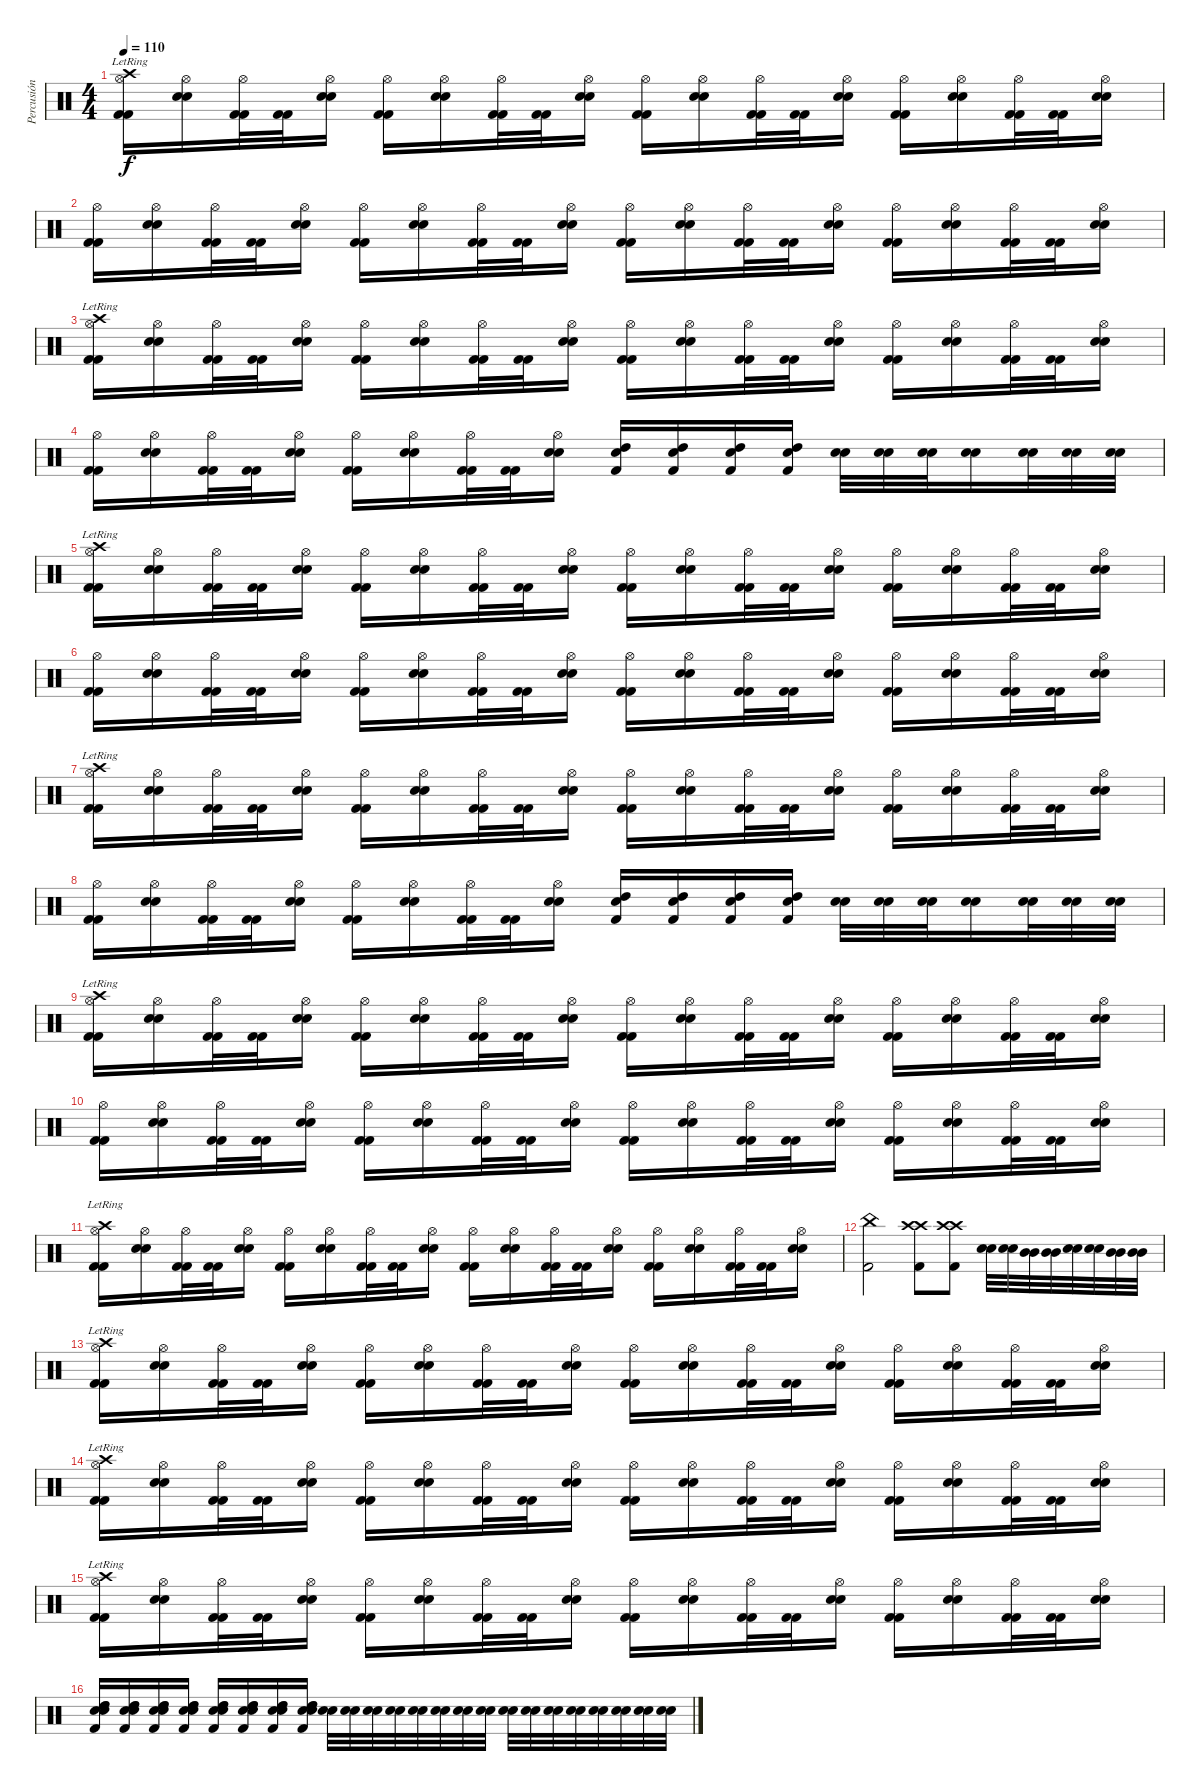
\track ("Percusión" "Percusión") {instrument percussion}
\staff {score}
\articulation defaults
\ts (4 4)
\tempo 110
\clef neutral
\ks c
("Kick (hit) 2" "Kick (hit) 2" "Hi-Hat (open)" "Crash high (hit)"{lr}).16{dy f} ("Snare (hit) 2" "Snare (hit) 2" "Hi-Hat (open)").16 ("Kick (hit) 2" "Kick (hit) 2" "Hi-Hat (open)").32 ("Kick (hit) 2" "Kick (hit) 2").32 ("Snare (hit) 2" "Snare (hit) 2" "Hi-Hat (open)").16 ("Kick (hit) 2" "Kick (hit) 2" "Hi-Hat (open)").16 ("Snare (hit) 2" "Snare (hit) 2" "Hi-Hat (open)").16 ("Kick (hit) 2" "Kick (hit) 2" "Hi-Hat (open)").32 ("Kick (hit) 2" "Kick (hit) 2").32 ("Snare (hit) 2" "Snare (hit) 2" "Hi-Hat (open)").16 ("Kick (hit) 2" "Kick (hit) 2" "Hi-Hat (open)").16 ("Snare (hit) 2" "Snare (hit) 2" "Hi-Hat (open)").16 ("Kick (hit) 2" "Kick (hit) 2" "Hi-Hat (open)").32 ("Kick (hit) 2" "Kick (hit) 2").32 ("Snare (hit) 2" "Snare (hit) 2" "Hi-Hat (open)").16 ("Kick (hit) 2" "Kick (hit) 2" "Hi-Hat (open)").16 ("Snare (hit) 2" "Snare (hit) 2" "Hi-Hat (open)").16 ("Kick (hit) 2" "Kick (hit) 2" "Hi-Hat (open)").32 ("Kick (hit) 2" "Kick (hit) 2").32 ("Snare (hit) 2" "Snare (hit) 2" "Hi-Hat (open)").16 |
("Kick (hit) 2" "Kick (hit) 2" "Hi-Hat (open)").16 ("Snare (hit) 2" "Snare (hit) 2" "Hi-Hat (open)").16 ("Kick (hit) 2" "Kick (hit) 2" "Hi-Hat (open)").32 ("Kick (hit) 2" "Kick (hit) 2").32 ("Snare (hit) 2" "Snare (hit) 2" "Hi-Hat (open)").16 ("Kick (hit) 2" "Kick (hit) 2" "Hi-Hat (open)").16 ("Snare (hit) 2" "Snare (hit) 2" "Hi-Hat (open)").16 ("Kick (hit) 2" "Kick (hit) 2" "Hi-Hat (open)").32 ("Kick (hit) 2" "Kick (hit) 2").32 ("Snare (hit) 2" "Snare (hit) 2" "Hi-Hat (open)").16 ("Kick (hit) 2" "Kick (hit) 2" "Hi-Hat (open)").16 ("Snare (hit) 2" "Snare (hit) 2" "Hi-Hat (open)").16 ("Kick (hit) 2" "Kick (hit) 2" "Hi-Hat (open)").32 ("Kick (hit) 2" "Kick (hit) 2").32 ("Snare (hit) 2" "Snare (hit) 2" "Hi-Hat (open)").16 ("Kick (hit) 2" "Kick (hit) 2" "Hi-Hat (open)").16 ("Snare (hit) 2" "Snare (hit) 2" "Hi-Hat (open)").16 ("Kick (hit) 2" "Kick (hit) 2" "Hi-Hat (open)").32 ("Kick (hit) 2" "Kick (hit) 2").32 ("Snare (hit) 2" "Snare (hit) 2" "Hi-Hat (open)").16 |
("Kick (hit) 2" "Kick (hit) 2" "Hi-Hat (open)" "Crash high (hit)"{lr}).16 ("Snare (hit) 2" "Snare (hit) 2" "Hi-Hat (open)").16 ("Kick (hit) 2" "Kick (hit) 2" "Hi-Hat (open)").32 ("Kick (hit) 2" "Kick (hit) 2").32 ("Snare (hit) 2" "Snare (hit) 2" "Hi-Hat (open)").16 ("Kick (hit) 2" "Kick (hit) 2" "Hi-Hat (open)").16 ("Snare (hit) 2" "Snare (hit) 2" "Hi-Hat (open)").16 ("Kick (hit) 2" "Kick (hit) 2" "Hi-Hat (open)").32 ("Kick (hit) 2" "Kick (hit) 2").32 ("Snare (hit) 2" "Snare (hit) 2" "Hi-Hat (open)").16 ("Kick (hit) 2" "Kick (hit) 2" "Hi-Hat (open)").16 ("Snare (hit) 2" "Snare (hit) 2" "Hi-Hat (open)").16 ("Kick (hit) 2" "Kick (hit) 2" "Hi-Hat (open)").32 ("Kick (hit) 2" "Kick (hit) 2").32 ("Snare (hit) 2" "Snare (hit) 2" "Hi-Hat (open)").16 ("Kick (hit) 2" "Kick (hit) 2" "Hi-Hat (open)").16 ("Snare (hit) 2" "Snare (hit) 2" "Hi-Hat (open)").16 ("Kick (hit) 2" "Kick (hit) 2" "Hi-Hat (open)").32 ("Kick (hit) 2" "Kick (hit) 2").32 ("Snare (hit) 2" "Snare (hit) 2" "Hi-Hat (open)").16 |
("Kick (hit) 2" "Kick (hit) 2" "Hi-Hat (open)").16 ("Snare (hit) 2" "Snare (hit) 2" "Hi-Hat (open)").16 ("Kick (hit) 2" "Kick (hit) 2" "Hi-Hat (open)").32 ("Kick (hit) 2" "Kick (hit) 2").32 ("Snare (hit) 2" "Snare (hit) 2" "Hi-Hat (open)").16 ("Kick (hit) 2" "Kick (hit) 2" "Hi-Hat (open)").16 ("Snare (hit) 2" "Snare (hit) 2" "Hi-Hat (open)").16 ("Kick (hit) 2" "Kick (hit) 2" "Hi-Hat (open)").32 ("Kick (hit) 2" "Kick (hit) 2").32 ("Snare (hit) 2" "Snare (hit) 2" "Hi-Hat (open)").16 ("Snare (hit) 2" "High Tom (hit)" "Kick (hit) 2").16 ("Snare (hit) 2" "High Tom (hit)" "Kick (hit) 2").16 ("Snare (hit) 2" "High Tom (hit)" "Kick (hit) 2").16 ("Snare (hit) 2" "High Tom (hit)" "Kick (hit) 2").16 ("Snare (hit) 2" "Snare (hit) 2").32 ("Snare (hit) 2" "Snare (hit) 2").32 ("Snare (hit) 2" "Snare (hit) 2").32 ("Snare (hit) 2" "Snare (hit) 2").16 ("Snare (hit) 2" "Snare (hit) 2").32 ("Snare (hit) 2" "Snare (hit) 2").32 ("Snare (hit) 2" "Snare (hit) 2").32 |
("Kick (hit) 2" "Kick (hit) 2" "Hi-Hat (open)" "Crash high (hit)"{lr}).16 ("Snare (hit) 2" "Snare (hit) 2" "Hi-Hat (open)").16 ("Kick (hit) 2" "Kick (hit) 2" "Hi-Hat (open)").32 ("Kick (hit) 2" "Kick (hit) 2").32 ("Snare (hit) 2" "Snare (hit) 2" "Hi-Hat (open)").16 ("Kick (hit) 2" "Kick (hit) 2" "Hi-Hat (open)").16 ("Snare (hit) 2" "Snare (hit) 2" "Hi-Hat (open)").16 ("Kick (hit) 2" "Kick (hit) 2" "Hi-Hat (open)").32 ("Kick (hit) 2" "Kick (hit) 2").32 ("Snare (hit) 2" "Snare (hit) 2" "Hi-Hat (open)").16 ("Kick (hit) 2" "Kick (hit) 2" "Hi-Hat (open)").16 ("Snare (hit) 2" "Snare (hit) 2" "Hi-Hat (open)").16 ("Kick (hit) 2" "Kick (hit) 2" "Hi-Hat (open)").32 ("Kick (hit) 2" "Kick (hit) 2").32 ("Snare (hit) 2" "Snare (hit) 2" "Hi-Hat (open)").16 ("Kick (hit) 2" "Kick (hit) 2" "Hi-Hat (open)").16 ("Snare (hit) 2" "Snare (hit) 2" "Hi-Hat (open)").16 ("Kick (hit) 2" "Kick (hit) 2" "Hi-Hat (open)").32 ("Kick (hit) 2" "Kick (hit) 2").32 ("Snare (hit) 2" "Snare (hit) 2" "Hi-Hat (open)").16 |
("Kick (hit) 2" "Kick (hit) 2" "Hi-Hat (open)").16 ("Snare (hit) 2" "Snare (hit) 2" "Hi-Hat (open)").16 ("Kick (hit) 2" "Kick (hit) 2" "Hi-Hat (open)").32 ("Kick (hit) 2" "Kick (hit) 2").32 ("Snare (hit) 2" "Snare (hit) 2" "Hi-Hat (open)").16 ("Kick (hit) 2" "Kick (hit) 2" "Hi-Hat (open)").16 ("Snare (hit) 2" "Snare (hit) 2" "Hi-Hat (open)").16 ("Kick (hit) 2" "Kick (hit) 2" "Hi-Hat (open)").32 ("Kick (hit) 2" "Kick (hit) 2").32 ("Snare (hit) 2" "Snare (hit) 2" "Hi-Hat (open)").16 ("Kick (hit) 2" "Kick (hit) 2" "Hi-Hat (open)").16 ("Snare (hit) 2" "Snare (hit) 2" "Hi-Hat (open)").16 ("Kick (hit) 2" "Kick (hit) 2" "Hi-Hat (open)").32 ("Kick (hit) 2" "Kick (hit) 2").32 ("Snare (hit) 2" "Snare (hit) 2" "Hi-Hat (open)").16 ("Kick (hit) 2" "Kick (hit) 2" "Hi-Hat (open)").16 ("Snare (hit) 2" "Snare (hit) 2" "Hi-Hat (open)").16 ("Kick (hit) 2" "Kick (hit) 2" "Hi-Hat (open)").32 ("Kick (hit) 2" "Kick (hit) 2").32 ("Snare (hit) 2" "Snare (hit) 2" "Hi-Hat (open)").16 |
("Kick (hit) 2" "Kick (hit) 2" "Hi-Hat (open)" "Crash high (hit)"{lr}).16 ("Snare (hit) 2" "Snare (hit) 2" "Hi-Hat (open)").16 ("Kick (hit) 2" "Kick (hit) 2" "Hi-Hat (open)").32 ("Kick (hit) 2" "Kick (hit) 2").32 ("Snare (hit) 2" "Snare (hit) 2" "Hi-Hat (open)").16 ("Kick (hit) 2" "Kick (hit) 2" "Hi-Hat (open)").16 ("Snare (hit) 2" "Snare (hit) 2" "Hi-Hat (open)").16 ("Kick (hit) 2" "Kick (hit) 2" "Hi-Hat (open)").32 ("Kick (hit) 2" "Kick (hit) 2").32 ("Snare (hit) 2" "Snare (hit) 2" "Hi-Hat (open)").16 ("Kick (hit) 2" "Kick (hit) 2" "Hi-Hat (open)").16 ("Snare (hit) 2" "Snare (hit) 2" "Hi-Hat (open)").16 ("Kick (hit) 2" "Kick (hit) 2" "Hi-Hat (open)").32 ("Kick (hit) 2" "Kick (hit) 2").32 ("Snare (hit) 2" "Snare (hit) 2" "Hi-Hat (open)").16 ("Kick (hit) 2" "Kick (hit) 2" "Hi-Hat (open)").16 ("Snare (hit) 2" "Snare (hit) 2" "Hi-Hat (open)").16 ("Kick (hit) 2" "Kick (hit) 2" "Hi-Hat (open)").32 ("Kick (hit) 2" "Kick (hit) 2").32 ("Snare (hit) 2" "Snare (hit) 2" "Hi-Hat (open)").16 |
("Kick (hit) 2" "Kick (hit) 2" "Hi-Hat (open)").16 ("Snare (hit) 2" "Snare (hit) 2" "Hi-Hat (open)").16 ("Kick (hit) 2" "Kick (hit) 2" "Hi-Hat (open)").32 ("Kick (hit) 2" "Kick (hit) 2").32 ("Snare (hit) 2" "Snare (hit) 2" "Hi-Hat (open)").16 ("Kick (hit) 2" "Kick (hit) 2" "Hi-Hat (open)").16 ("Snare (hit) 2" "Snare (hit) 2" "Hi-Hat (open)").16 ("Kick (hit) 2" "Kick (hit) 2" "Hi-Hat (open)").32 ("Kick (hit) 2" "Kick (hit) 2").32 ("Snare (hit) 2" "Snare (hit) 2" "Hi-Hat (open)").16 ("Snare (hit) 2" "High Tom (hit)" "Kick (hit) 2").16 ("Snare (hit) 2" "High Tom (hit)" "Kick (hit) 2").16 ("Snare (hit) 2" "High Tom (hit)" "Kick (hit) 2").16 ("Snare (hit) 2" "High Tom (hit)" "Kick (hit) 2").16 ("Snare (hit) 2" "Snare (hit) 2").32 ("Snare (hit) 2" "Snare (hit) 2").32 ("Snare (hit) 2" "Snare (hit) 2").32 ("Snare (hit) 2" "Snare (hit) 2").16 ("Snare (hit) 2" "Snare (hit) 2").32 ("Snare (hit) 2" "Snare (hit) 2").32 ("Snare (hit) 2" "Snare (hit) 2").32 |
("Kick (hit) 2" "Kick (hit) 2" "Hi-Hat (open)" "Crash high (hit)"{lr}).16 ("Snare (hit) 2" "Snare (hit) 2" "Hi-Hat (open)").16 ("Kick (hit) 2" "Kick (hit) 2" "Hi-Hat (open)").32 ("Kick (hit) 2" "Kick (hit) 2").32 ("Snare (hit) 2" "Snare (hit) 2" "Hi-Hat (open)").16 ("Kick (hit) 2" "Kick (hit) 2" "Hi-Hat (open)").16 ("Snare (hit) 2" "Snare (hit) 2" "Hi-Hat (open)").16 ("Kick (hit) 2" "Kick (hit) 2" "Hi-Hat (open)").32 ("Kick (hit) 2" "Kick (hit) 2").32 ("Snare (hit) 2" "Snare (hit) 2" "Hi-Hat (open)").16 ("Kick (hit) 2" "Kick (hit) 2" "Hi-Hat (open)").16 ("Snare (hit) 2" "Snare (hit) 2" "Hi-Hat (open)").16 ("Kick (hit) 2" "Kick (hit) 2" "Hi-Hat (open)").32 ("Kick (hit) 2" "Kick (hit) 2").32 ("Snare (hit) 2" "Snare (hit) 2" "Hi-Hat (open)").16 ("Kick (hit) 2" "Kick (hit) 2" "Hi-Hat (open)").16 ("Snare (hit) 2" "Snare (hit) 2" "Hi-Hat (open)").16 ("Kick (hit) 2" "Kick (hit) 2" "Hi-Hat (open)").32 ("Kick (hit) 2" "Kick (hit) 2").32 ("Snare (hit) 2" "Snare (hit) 2" "Hi-Hat (open)").16 |
("Kick (hit) 2" "Kick (hit) 2" "Hi-Hat (open)").16 ("Snare (hit) 2" "Snare (hit) 2" "Hi-Hat (open)").16 ("Kick (hit) 2" "Kick (hit) 2" "Hi-Hat (open)").32 ("Kick (hit) 2" "Kick (hit) 2").32 ("Snare (hit) 2" "Snare (hit) 2" "Hi-Hat (open)").16 ("Kick (hit) 2" "Kick (hit) 2" "Hi-Hat (open)").16 ("Snare (hit) 2" "Snare (hit) 2" "Hi-Hat (open)").16 ("Kick (hit) 2" "Kick (hit) 2" "Hi-Hat (open)").32 ("Kick (hit) 2" "Kick (hit) 2").32 ("Snare (hit) 2" "Snare (hit) 2" "Hi-Hat (open)").16 ("Kick (hit) 2" "Kick (hit) 2" "Hi-Hat (open)").16 ("Snare (hit) 2" "Snare (hit) 2" "Hi-Hat (open)").16 ("Kick (hit) 2" "Kick (hit) 2" "Hi-Hat (open)").32 ("Kick (hit) 2" "Kick (hit) 2").32 ("Snare (hit) 2" "Snare (hit) 2" "Hi-Hat (open)").16 ("Kick (hit) 2" "Kick (hit) 2" "Hi-Hat (open)").16 ("Snare (hit) 2" "Snare (hit) 2" "Hi-Hat (open)").16 ("Kick (hit) 2" "Kick (hit) 2" "Hi-Hat (open)").32 ("Kick (hit) 2" "Kick (hit) 2").32 ("Snare (hit) 2" "Snare (hit) 2" "Hi-Hat (open)").16 |
("Kick (hit) 2" "Kick (hit) 2" "Hi-Hat (open)" "Crash high (hit)"{lr}).16 ("Snare (hit) 2" "Snare (hit) 2" "Hi-Hat (open)").16 ("Kick (hit) 2" "Kick (hit) 2" "Hi-Hat (open)").32 ("Kick (hit) 2" "Kick (hit) 2").32 ("Snare (hit) 2" "Snare (hit) 2" "Hi-Hat (open)").16 ("Kick (hit) 2" "Kick (hit) 2" "Hi-Hat (open)").16 ("Snare (hit) 2" "Snare (hit) 2" "Hi-Hat (open)").16 ("Kick (hit) 2" "Kick (hit) 2" "Hi-Hat (open)").32 ("Kick (hit) 2" "Kick (hit) 2").32 ("Snare (hit) 2" "Snare (hit) 2" "Hi-Hat (open)").16 ("Kick (hit) 2" "Kick (hit) 2" "Hi-Hat (open)").16 ("Snare (hit) 2" "Snare (hit) 2" "Hi-Hat (open)").16 ("Kick (hit) 2" "Kick (hit) 2" "Hi-Hat (open)").32 ("Kick (hit) 2" "Kick (hit) 2").32 ("Snare (hit) 2" "Snare (hit) 2" "Hi-Hat (open)").16 ("Kick (hit) 2" "Kick (hit) 2" "Hi-Hat (open)").16 ("Snare (hit) 2" "Snare (hit) 2" "Hi-Hat (open)").16 ("Kick (hit) 2" "Kick (hit) 2" "Hi-Hat (open)").32 ("Kick (hit) 2" "Kick (hit) 2").32 ("Snare (hit) 2" "Snare (hit) 2" "Hi-Hat (open)").16 |
("China (hit)" "Kick (hit) 2").2 ("Crash high (hit)" "Crash high (hit)" "Kick (hit) 2").8 ("Crash high (hit)" "Crash high (hit)" "Kick (hit) 2").8 ("Snare (hit) 2" "Snare (hit) 2").32 ("Snare (hit) 2" "Snare (hit) 2").32 ("Mid Tom (hit)" "Mid Tom (hit)").32 ("Mid Tom (hit)" "Mid Tom (hit)").32 ("Snare (hit) 2" "Snare (hit) 2").32 ("Snare (hit) 2" "Snare (hit) 2").32 ("Mid Tom (hit)" "Mid Tom (hit)").32 ("Mid Tom (hit)" "Mid Tom (hit)").32 |
("Kick (hit) 2" "Kick (hit) 2" "Hi-Hat (open)" "Crash high (hit)"{lr}).16 ("Snare (hit) 2" "Snare (hit) 2" "Hi-Hat (open)").16 ("Kick (hit) 2" "Kick (hit) 2" "Hi-Hat (open)").32 ("Kick (hit) 2" "Kick (hit) 2").32 ("Snare (hit) 2" "Snare (hit) 2" "Hi-Hat (open)").16 ("Kick (hit) 2" "Kick (hit) 2" "Hi-Hat (open)").16 ("Snare (hit) 2" "Snare (hit) 2" "Hi-Hat (open)").16 ("Kick (hit) 2" "Kick (hit) 2" "Hi-Hat (open)").32 ("Kick (hit) 2" "Kick (hit) 2").32 ("Snare (hit) 2" "Snare (hit) 2" "Hi-Hat (open)").16 ("Kick (hit) 2" "Kick (hit) 2" "Hi-Hat (open)").16 ("Snare (hit) 2" "Snare (hit) 2" "Hi-Hat (open)").16 ("Kick (hit) 2" "Kick (hit) 2" "Hi-Hat (open)").32 ("Kick (hit) 2" "Kick (hit) 2").32 ("Snare (hit) 2" "Snare (hit) 2" "Hi-Hat (open)").16 ("Kick (hit) 2" "Kick (hit) 2" "Hi-Hat (open)").16 ("Snare (hit) 2" "Snare (hit) 2" "Hi-Hat (open)").16 ("Kick (hit) 2" "Kick (hit) 2" "Hi-Hat (open)").32 ("Kick (hit) 2" "Kick (hit) 2").32 ("Snare (hit) 2" "Snare (hit) 2" "Hi-Hat (open)").16 |
("Kick (hit) 2" "Kick (hit) 2" "Hi-Hat (open)" "Crash high (hit)"{lr}).16 ("Snare (hit) 2" "Snare (hit) 2" "Hi-Hat (open)").16 ("Kick (hit) 2" "Kick (hit) 2" "Hi-Hat (open)").32 ("Kick (hit) 2" "Kick (hit) 2").32 ("Snare (hit) 2" "Snare (hit) 2" "Hi-Hat (open)").16 ("Kick (hit) 2" "Kick (hit) 2" "Hi-Hat (open)").16 ("Snare (hit) 2" "Snare (hit) 2" "Hi-Hat (open)").16 ("Kick (hit) 2" "Kick (hit) 2" "Hi-Hat (open)").32 ("Kick (hit) 2" "Kick (hit) 2").32 ("Snare (hit) 2" "Snare (hit) 2" "Hi-Hat (open)").16 ("Kick (hit) 2" "Kick (hit) 2" "Hi-Hat (open)").16 ("Snare (hit) 2" "Snare (hit) 2" "Hi-Hat (open)").16 ("Kick (hit) 2" "Kick (hit) 2" "Hi-Hat (open)").32 ("Kick (hit) 2" "Kick (hit) 2").32 ("Snare (hit) 2" "Snare (hit) 2" "Hi-Hat (open)").16 ("Kick (hit) 2" "Kick (hit) 2" "Hi-Hat (open)").16 ("Snare (hit) 2" "Snare (hit) 2" "Hi-Hat (open)").16 ("Kick (hit) 2" "Kick (hit) 2" "Hi-Hat (open)").32 ("Kick (hit) 2" "Kick (hit) 2").32 ("Snare (hit) 2" "Snare (hit) 2" "Hi-Hat (open)").16 |
("Kick (hit) 2" "Kick (hit) 2" "Hi-Hat (open)" "Crash high (hit)"{lr}).16 ("Snare (hit) 2" "Snare (hit) 2" "Hi-Hat (open)").16 ("Kick (hit) 2" "Kick (hit) 2" "Hi-Hat (open)").32 ("Kick (hit) 2" "Kick (hit) 2").32 ("Snare (hit) 2" "Snare (hit) 2" "Hi-Hat (open)").16 ("Kick (hit) 2" "Kick (hit) 2" "Hi-Hat (open)").16 ("Snare (hit) 2" "Snare (hit) 2" "Hi-Hat (open)").16 ("Kick (hit) 2" "Kick (hit) 2" "Hi-Hat (open)").32 ("Kick (hit) 2" "Kick (hit) 2").32 ("Snare (hit) 2" "Snare (hit) 2" "Hi-Hat (open)").16 ("Kick (hit) 2" "Kick (hit) 2" "Hi-Hat (open)").16 ("Snare (hit) 2" "Snare (hit) 2" "Hi-Hat (open)").16 ("Kick (hit) 2" "Kick (hit) 2" "Hi-Hat (open)").32 ("Kick (hit) 2" "Kick (hit) 2").32 ("Snare (hit) 2" "Snare (hit) 2" "Hi-Hat (open)").16 ("Kick (hit) 2" "Kick (hit) 2" "Hi-Hat (open)").16 ("Snare (hit) 2" "Snare (hit) 2" "Hi-Hat (open)").16 ("Kick (hit) 2" "Kick (hit) 2" "Hi-Hat (open)").32 ("Kick (hit) 2" "Kick (hit) 2").32 ("Snare (hit) 2" "Snare (hit) 2" "Hi-Hat (open)").16 |
("Snare (hit) 2" "Snare (hit) 2" "High Tom (hit)" "High Tom (hit)" "Kick (hit) 2").16 ("Snare (hit) 2" "Snare (hit) 2" "High Tom (hit)" "High Tom (hit)" "Kick (hit) 2").16 ("Snare (hit) 2" "Snare (hit) 2" "High Tom (hit)" "High Tom (hit)" "Kick (hit) 2").16 ("Snare (hit) 2" "Snare (hit) 2" "High Tom (hit)" "High Tom (hit)" "Kick (hit) 2").16 ("Snare (hit) 2" "Snare (hit) 2" "High Tom (hit)" "High Tom (hit)" "Kick (hit) 2").16 ("Snare (hit) 2" "Snare (hit) 2" "High Tom (hit)" "High Tom (hit)" "Kick (hit) 2").16 ("Snare (hit) 2" "Snare (hit) 2" "High Tom (hit)" "High Tom (hit)" "Kick (hit) 2").16 ("Snare (hit) 2" "Snare (hit) 2" "High Tom (hit)" "High Tom (hit)" "Kick (hit) 2").16 ("Snare (hit) 2" "Snare (hit) 2").32 ("Snare (hit) 2" "Snare (hit) 2").32 ("Snare (hit) 2" "Snare (hit) 2").32 ("Snare (hit) 2" "Snare (hit) 2").32 ("Snare (hit) 2" "Snare (hit) 2").32 ("Snare (hit) 2" "Snare (hit) 2").32 ("Snare (hit) 2" "Snare (hit) 2").32 ("Snare (hit) 2" "Snare (hit) 2").32 ("Snare (hit) 2" "Snare (hit) 2").32 ("Snare (hit) 2" "Snare (hit) 2").32 ("Snare (hit) 2" "Snare (hit) 2").32 ("Snare (hit) 2" "Snare (hit) 2").32 ("Snare (hit) 2" "Snare (hit) 2").32 ("Snare (hit) 2" "Snare (hit) 2").32 ("Snare (hit) 2" "Snare (hit) 2").32 ("Snare (hit) 2" "Snare (hit) 2").32
